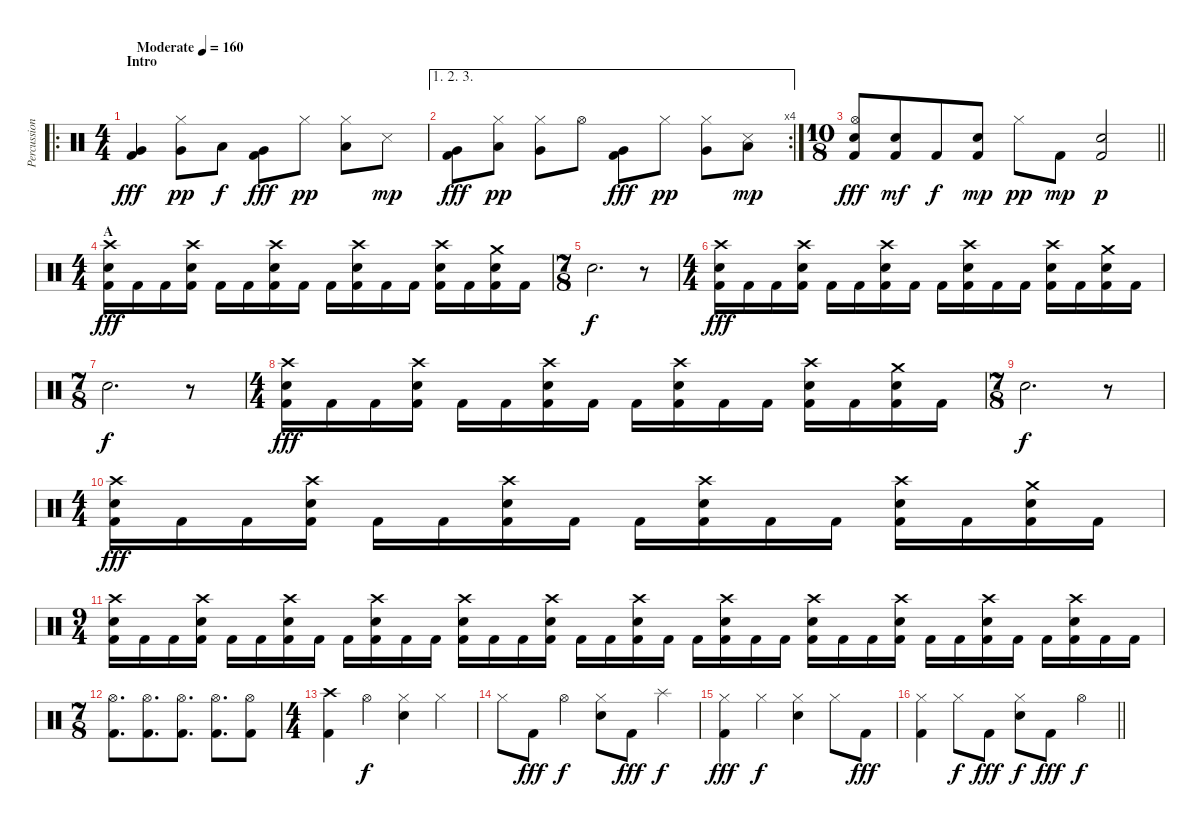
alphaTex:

\track ("Percussion" "Percussion") {instrument percussion}
\staff {score}
\articulation defaults
\ro
\ts (4 4)
\section ("" "Intro")
\tempo (160 "Moderate")
\clef neutral
\ks c
("Very Low Tom (hit)" "Kick (hit) 2").4{dy fff} ("Hi-Hat (closed)" "Very Low Tom (hit)").8{dy pp} "Low Tom (hit)".8{dy f} ("Very Low Tom (hit)" "Kick (hit) 2").8{dy fff} "Hi-Hat (closed)".8{dy pp} ("Hi-Hat (closed)" "Low Tom (hit)").8 "Snare (side stick) 3".8{dy mp} |
\ae (1 2 3)
\rc 4
("Very Low Tom (hit)" "Kick (hit) 2").8{dy fff} ("Hi-Hat (closed)" "Low Tom (hit)").8{dy pp} ("Hi-Hat (closed)" "Very Low Tom (hit)").8 "Hi-Hat (open)".8 ("Very Low Tom (hit)" "Kick (hit) 2").8{dy fff} "Hi-Hat (closed)".8{dy pp} ("Hi-Hat (closed)" "Very Low Tom (hit)").8 ("Snare (side stick) 3" "Low Tom (hit)").8{dy mp} |
\ts (10 8)
\barLineRight lightlight
("Hi-Hat (open)" "Kick (hit) 2" "Electric Snare (hit)").8{dy fff} ("Kick (hit) 2" "Electric Snare (hit)").8{dy mf} "Kick (hit) 2".8{dy f} ("Kick (hit) 2" "Electric Snare (hit)").8{dy mp} "Hi-Hat (closed)".8{dy pp} "Kick (hit) 2".8{dy mp} ("Kick (hit) 2" "Electric Snare (hit)").2{dy p} |
\ts (4 4)
\section ("" "A")
("Crash high (hit)" "Electric Snare (hit)" "Kick (hit) 2").16{dy fff} "Kick (hit) 2".16 "Kick (hit) 2".16 ("Crash high (hit)" "Electric Snare (hit)" "Kick (hit) 2").16 "Kick (hit) 2".16 "Kick (hit) 2".16 ("Crash high (hit)" "Electric Snare (hit)" "Kick (hit) 2").16 "Kick (hit) 2".16 "Kick (hit) 2".16 ("Crash high (hit)" "Electric Snare (hit)" "Kick (hit) 2").16 "Kick (hit) 2".16 "Kick (hit) 2".16 ("Crash high (hit)" "Electric Snare (hit)" "Kick (hit) 2").16 "Kick (hit) 2".16 ("Crash medium (hit)" "Electric Snare (hit)" "Kick (hit) 2").16 "Kick (hit) 2".16 |
\ts (7 8)
"Electric Snare (hit)".2{d dy f} r.8 |
\ts (4 4)
("Crash high (hit)" "Electric Snare (hit)" "Kick (hit) 2").16{dy fff} "Kick (hit) 2".16 "Kick (hit) 2".16 ("Crash high (hit)" "Electric Snare (hit)" "Kick (hit) 2").16 "Kick (hit) 2".16 "Kick (hit) 2".16 ("Crash high (hit)" "Electric Snare (hit)" "Kick (hit) 2").16 "Kick (hit) 2".16 "Kick (hit) 2".16 ("Crash high (hit)" "Electric Snare (hit)" "Kick (hit) 2").16 "Kick (hit) 2".16 "Kick (hit) 2".16 ("Crash high (hit)" "Electric Snare (hit)" "Kick (hit) 2").16 "Kick (hit) 2".16 ("Crash medium (hit)" "Electric Snare (hit)" "Kick (hit) 2").16 "Kick (hit) 2".16 |
\ts (7 8)
"Electric Snare (hit)".2{d dy f} r.8 |
\ts (4 4)
("Crash high (hit)" "Electric Snare (hit)" "Kick (hit) 2").16{dy fff} "Kick (hit) 2".16 "Kick (hit) 2".16 ("Crash high (hit)" "Electric Snare (hit)" "Kick (hit) 2").16 "Kick (hit) 2".16 "Kick (hit) 2".16 ("Crash high (hit)" "Electric Snare (hit)" "Kick (hit) 2").16 "Kick (hit) 2".16 "Kick (hit) 2".16 ("Crash high (hit)" "Electric Snare (hit)" "Kick (hit) 2").16 "Kick (hit) 2".16 "Kick (hit) 2".16 ("Crash high (hit)" "Electric Snare (hit)" "Kick (hit) 2").16 "Kick (hit) 2".16 ("Crash medium (hit)" "Electric Snare (hit)" "Kick (hit) 2").16 "Kick (hit) 2".16 |
\ts (7 8)
"Electric Snare (hit)".2{d dy f} r.8 |
\ts (4 4)
("Crash high (hit)" "Electric Snare (hit)" "Kick (hit) 2").16{dy fff} "Kick (hit) 2".16 "Kick (hit) 2".16 ("Crash high (hit)" "Electric Snare (hit)" "Kick (hit) 2").16 "Kick (hit) 2".16 "Kick (hit) 2".16 ("Crash high (hit)" "Electric Snare (hit)" "Kick (hit) 2").16 "Kick (hit) 2".16 "Kick (hit) 2".16 ("Crash high (hit)" "Electric Snare (hit)" "Kick (hit) 2").16 "Kick (hit) 2".16 "Kick (hit) 2".16 ("Crash high (hit)" "Electric Snare (hit)" "Kick (hit) 2").16 "Kick (hit) 2".16 ("Crash medium (hit)" "Electric Snare (hit)" "Kick (hit) 2").16 "Kick (hit) 2".16 |
\ts (9 4)
("Crash high (hit)" "Electric Snare (hit)" "Kick (hit) 2").16 "Kick (hit) 2".16 "Kick (hit) 2".16 ("Crash high (hit)" "Electric Snare (hit)" "Kick (hit) 2").16 "Kick (hit) 2".16 "Kick (hit) 2".16 ("Crash high (hit)" "Electric Snare (hit)" "Kick (hit) 2").16 "Kick (hit) 2".16 "Kick (hit) 2".16 ("Crash high (hit)" "Electric Snare (hit)" "Kick (hit) 2").16 "Kick (hit) 2".16 "Kick (hit) 2".16 ("Crash high (hit)" "Electric Snare (hit)" "Kick (hit) 2").16 "Kick (hit) 2".16 "Kick (hit) 2".16 ("Crash high (hit)" "Electric Snare (hit)" "Kick (hit) 2").16 "Kick (hit) 2".16 "Kick (hit) 2".16 ("Crash high (hit)" "Electric Snare (hit)" "Kick (hit) 2").16 "Kick (hit) 2".16 "Kick (hit) 2".16 ("Crash high (hit)" "Electric Snare (hit)" "Kick (hit) 2").16 "Kick (hit) 2".16 "Kick (hit) 2".16 ("Crash high (hit)" "Electric Snare (hit)" "Kick (hit) 2").16 "Kick (hit) 2".16 "Kick (hit) 2".16 ("Crash high (hit)" "Electric Snare (hit)" "Kick (hit) 2").16 "Kick (hit) 2".16 "Kick (hit) 2".16 ("Crash high (hit)" "Electric Snare (hit)" "Kick (hit) 2").16 "Kick (hit) 2".16 "Kick (hit) 2".16 ("Crash high (hit)" "Electric Snare (hit)" "Kick (hit) 2").16 "Kick (hit) 2".16 "Kick (hit) 2".16 |
\ts (7 8)
("Hi-Hat (open)" "Kick (hit) 2").8{d} ("Hi-Hat (open)" "Kick (hit) 2").8{d} ("Hi-Hat (open)" "Kick (hit) 2").8{d} ("Hi-Hat (open)" "Kick (hit) 2").8{d} ("Hi-Hat (open)" "Kick (hit) 2").8 |
\ts (4 4)
("Crash high (hit)" "Kick (hit) 2").4 "Hi-Hat (open)".4{dy f} ("Hi-Hat (closed)" "Electric Snare (hit)").4 "Hi-Hat (closed)".4 |
"Hi-Hat (closed)".8 "Kick (hit) 2".8{dy fff} "Hi-Hat (open)".4{dy f} ("Hi-Hat (closed)" "Electric Snare (hit)").8 "Kick (hit) 2".8{dy fff} "Splash (hit)".4{dy f} |
("Hi-Hat (closed)" "Kick (hit) 2").4{dy fff} "Hi-Hat (closed)".4{dy f} ("Hi-Hat (closed)" "Electric Snare (hit)").4 "Hi-Hat (closed)".8 "Kick (hit) 2".8{dy fff} |
\barLineRight lightlight
("Hi-Hat (closed)" "Kick (hit) 2").4 "Hi-Hat (closed)".8{dy f} "Kick (hit) 2".8{dy fff} ("Hi-Hat (closed)" "Electric Snare (hit)").8{dy f} "Kick (hit) 2".8{dy fff} "Hi-Hat (open)".4{dy f}
